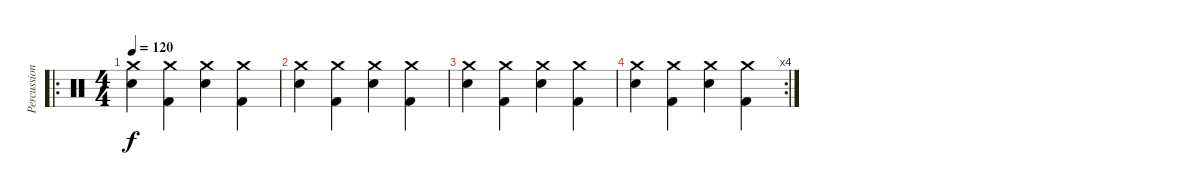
\track ("Percussion" "Percussion") {instrument percussion}
\staff {score}
\articulation defaults
\ro
\ts (4 4)
\tempo 120
\clef neutral
\ks c
("Crash medium (hit)" "Snare (hit) 2").4{dy f} ("Crash medium (hit)" "Kick (hit) 2").4 ("Crash medium (hit)" "Snare (hit) 2").4 ("Crash medium (hit)" "Kick (hit) 2").4 |
("Crash medium (hit)" "Snare (hit) 2").4 ("Crash medium (hit)" "Kick (hit) 2").4 ("Crash medium (hit)" "Snare (hit) 2").4 ("Crash medium (hit)" "Kick (hit) 2").4 |
("Crash medium (hit)" "Snare (hit) 2").4 ("Crash medium (hit)" "Kick (hit) 2").4 ("Crash medium (hit)" "Snare (hit) 2").4 ("Crash medium (hit)" "Kick (hit) 2").4 |
\rc 4
("Crash medium (hit)" "Snare (hit) 2").4 ("Crash medium (hit)" "Kick (hit) 2").4 ("Crash medium (hit)" "Snare (hit) 2").4 ("Crash medium (hit)" "Kick (hit) 2").4
